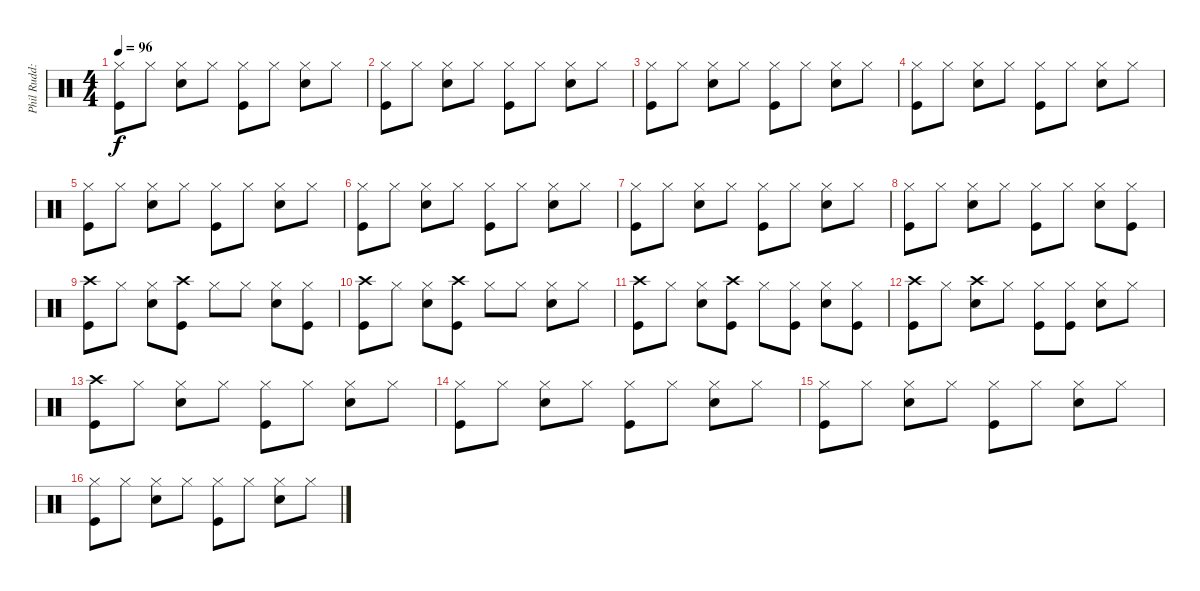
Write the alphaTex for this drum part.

\track ("Phil Rudd: Drums" "Phil Rudd:") {instrument percussion}
\staff {score}
\articulation defaults
\ts (4 4)
\tempo 96
\clef neutral
\ks c
("Hi-Hat (closed)" "Kick (hit)").8{dy f} "Hi-Hat (closed)".8 ("Hi-Hat (closed)" "Snare (hit) 2").8 "Hi-Hat (closed)".8 ("Hi-Hat (closed)" "Kick (hit)").8 "Hi-Hat (closed)".8 ("Hi-Hat (closed)" "Snare (hit) 2").8 "Hi-Hat (closed)".8 |
("Hi-Hat (closed)" "Kick (hit)").8 "Hi-Hat (closed)".8 ("Hi-Hat (closed)" "Snare (hit) 2").8 "Hi-Hat (closed)".8 ("Hi-Hat (closed)" "Kick (hit)").8 "Hi-Hat (closed)".8 ("Hi-Hat (closed)" "Snare (hit) 2").8 "Hi-Hat (closed)".8 |
("Hi-Hat (closed)" "Kick (hit)").8 "Hi-Hat (closed)".8 ("Hi-Hat (closed)" "Snare (hit) 2").8 "Hi-Hat (closed)".8 ("Hi-Hat (closed)" "Kick (hit)").8 "Hi-Hat (closed)".8 ("Hi-Hat (closed)" "Snare (hit) 2").8 "Hi-Hat (closed)".8 |
("Hi-Hat (closed)" "Kick (hit)").8 "Hi-Hat (closed)".8 ("Hi-Hat (closed)" "Snare (hit) 2").8 "Hi-Hat (closed)".8 ("Hi-Hat (closed)" "Kick (hit)").8 "Hi-Hat (closed)".8 ("Hi-Hat (closed)" "Snare (hit) 2").8 "Hi-Hat (closed)".8 |
("Hi-Hat (closed)" "Kick (hit)").8 "Hi-Hat (closed)".8 ("Hi-Hat (closed)" "Snare (hit) 2").8 "Hi-Hat (closed)".8 ("Hi-Hat (closed)" "Kick (hit)").8 "Hi-Hat (closed)".8 ("Hi-Hat (closed)" "Snare (hit) 2").8 "Hi-Hat (closed)".8 |
("Hi-Hat (closed)" "Kick (hit)").8 "Hi-Hat (closed)".8 ("Hi-Hat (closed)" "Snare (hit) 2").8 "Hi-Hat (closed)".8 ("Hi-Hat (closed)" "Kick (hit)").8 "Hi-Hat (closed)".8 ("Hi-Hat (closed)" "Snare (hit) 2").8 "Hi-Hat (closed)".8 |
("Hi-Hat (closed)" "Kick (hit)").8 "Hi-Hat (closed)".8 ("Hi-Hat (closed)" "Snare (hit) 2").8 "Hi-Hat (closed)".8 ("Hi-Hat (closed)" "Kick (hit)").8 "Hi-Hat (closed)".8 ("Hi-Hat (closed)" "Snare (hit) 2").8 "Hi-Hat (closed)".8 |
("Hi-Hat (closed)" "Kick (hit)").8 "Hi-Hat (closed)".8 ("Hi-Hat (closed)" "Snare (hit) 2").8 "Hi-Hat (closed)".8 ("Hi-Hat (closed)" "Kick (hit)").8 "Hi-Hat (closed)".8 ("Hi-Hat (closed)" "Snare (hit) 2").8 ("Hi-Hat (closed)" "Kick (hit)").8 |
("Crash high (hit)" "Kick (hit)").8 "Hi-Hat (closed)".8 ("Hi-Hat (closed)" "Snare (hit) 2").8 ("Crash high (hit)" "Kick (hit)").8 "Hi-Hat (closed)".8 "Hi-Hat (closed)".8 ("Hi-Hat (closed)" "Snare (hit) 2").8 ("Hi-Hat (closed)" "Kick (hit)").8 |
("Crash high (hit)" "Kick (hit)").8 "Hi-Hat (closed)".8 ("Hi-Hat (closed)" "Snare (hit) 2").8 ("Crash high (hit)" "Kick (hit)").8 "Hi-Hat (closed)".8 "Hi-Hat (closed)".8 ("Hi-Hat (closed)" "Snare (hit) 2").8 "Hi-Hat (closed)".8 |
("Crash high (hit)" "Kick (hit)").8 "Hi-Hat (closed)".8 ("Hi-Hat (closed)" "Snare (hit) 2").8 ("Crash high (hit)" "Kick (hit)").8 "Hi-Hat (closed)".8 ("Hi-Hat (closed)" "Kick (hit)").8 ("Hi-Hat (closed)" "Snare (hit) 2").8 ("Hi-Hat (closed)" "Kick (hit)").8 |
("Crash high (hit)" "Kick (hit)").8 "Hi-Hat (closed)".8 ("Crash high (hit)" "Snare (hit) 2").8 "Hi-Hat (closed)".8 ("Hi-Hat (closed)" "Kick (hit)").8 ("Hi-Hat (closed)" "Kick (hit)").8 ("Hi-Hat (closed)" "Snare (hit) 2").8 "Hi-Hat (closed)".8 |
("Crash high (hit)" "Kick (hit)").8 "Hi-Hat (closed)".8 ("Hi-Hat (closed)" "Snare (hit) 2").8 "Hi-Hat (closed)".8 ("Hi-Hat (closed)" "Kick (hit)").8 "Hi-Hat (closed)".8 ("Hi-Hat (closed)" "Snare (hit) 2").8 "Hi-Hat (closed)".8 |
("Hi-Hat (closed)" "Kick (hit)").8 "Hi-Hat (closed)".8 ("Hi-Hat (closed)" "Snare (hit) 2").8 "Hi-Hat (closed)".8 ("Hi-Hat (closed)" "Kick (hit)").8 "Hi-Hat (closed)".8 ("Hi-Hat (closed)" "Snare (hit) 2").8 "Hi-Hat (closed)".8 |
("Hi-Hat (closed)" "Kick (hit)").8 "Hi-Hat (closed)".8 ("Hi-Hat (closed)" "Snare (hit) 2").8 "Hi-Hat (closed)".8 ("Hi-Hat (closed)" "Kick (hit)").8 "Hi-Hat (closed)".8 ("Hi-Hat (closed)" "Snare (hit) 2").8 "Hi-Hat (closed)".8 |
("Hi-Hat (closed)" "Kick (hit)").8 "Hi-Hat (closed)".8 ("Hi-Hat (closed)" "Snare (hit) 2").8 "Hi-Hat (closed)".8 ("Hi-Hat (closed)" "Kick (hit)").8 "Hi-Hat (closed)".8 ("Hi-Hat (closed)" "Snare (hit) 2").8 "Hi-Hat (closed)".8
